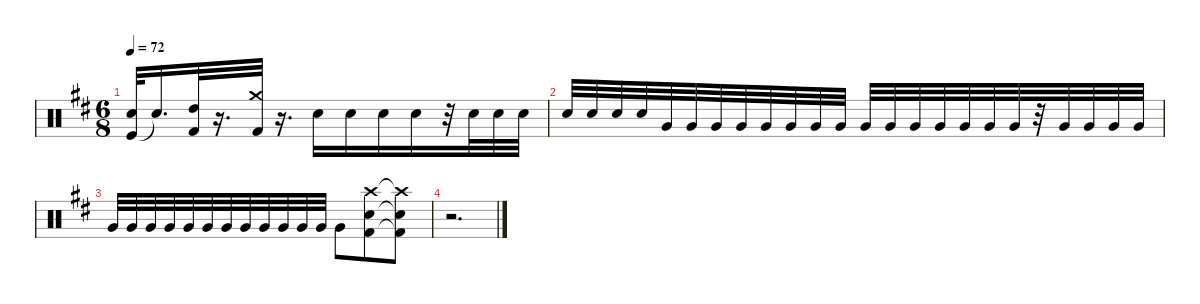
\defaultSystemsLayout 4
\hideDynamics
\bracketExtendMode nobrackets
\singleTrackTrackNamePolicy hidden
\multiTrackTrackNamePolicy hidden
\firstSystemTrackNameMode fullname
\firstSystemTrackNameOrientation horizontal
\otherSystemsTrackNameOrientation horizontal
\track ("Drumkit" "drm.") {defaultSystemsLayout 4 instrument percussion}
\staff {score}
\articulation defaults
\ts (6 8)
\tempo 72
\clef neutral
\ks bminor
("Kick (hit)"{acc forcenatural} "Electric Snare (hit)"{acc forcenatural}).32{dy fff beam Up} "Electric Snare (hit)"{t acc forcenatural}.16{d beam Up} ("Kick (hit) 2"{acc forcenatural} "High Tom (hit)"{acc forcenatural}).32{dy f beam Up} r.16{d beam Up} ("Crash medium (hit)"{acc forcenatural} "Kick (hit) 2"{acc forcenatural}).32{dy fff beam Up} r.16{d beam Up} "Snare (hit) 2"{acc forcenatural}.16{beam Down} "Snare (hit) 2"{acc forcenatural}.16{beam Down} "Snare (hit) 2"{acc forcenatural}.16{beam Down} "Snare (hit) 2"{acc forcenatural}.16{beam Down} r.32{beam Down} "Snare (hit) 2"{acc forcenatural}.32{dy ff beam Down} "Snare (hit) 2"{acc forcenatural}.32{beam Down} "Snare (hit) 2"{acc forcenatural}.32{beam Down} |
"Snare (hit) 2"{acc forcenatural}.32{beam Up} "Snare (hit) 2"{acc forcenatural}.32{beam Up} "Snare (hit) 2"{acc forcenatural}.32{beam Up} "Snare (hit) 2"{acc forcenatural}.32{beam Up} "Very Low Tom (hit)"{acc forcenatural}.32{beam Up} "Very Low Tom (hit)"{acc forcenatural}.32{beam Up} "Very Low Tom (hit)"{acc forcenatural}.32{beam Up} "Very Low Tom (hit)"{acc forcenatural}.32{beam Up} "Very Low Tom (hit)"{acc forcenatural}.32{beam Up} "Very Low Tom (hit)"{acc forcenatural}.32{beam Up} "Very Low Tom (hit)"{acc forcenatural}.32{beam Up} "Very Low Tom (hit)"{acc forcenatural}.32{beam Up} "Very Low Tom (hit)"{acc forcenatural}.32{beam Up} "Very Low Tom (hit)"{acc forcenatural}.32{beam Up} "Very Low Tom (hit)"{acc forcenatural}.32{beam Up} "Very Low Tom (hit)"{acc forcenatural}.32{beam Up} "Very Low Tom (hit)"{acc forcenatural}.32{beam Up} "Very Low Tom (hit)"{acc forcenatural}.32{beam Up} "Very Low Tom (hit)"{acc forcenatural}.32{beam Up} r.32{beam Up} "Very Low Tom (hit)"{acc forcenatural}.32{beam Up} "Very Low Tom (hit)"{acc forcenatural}.32{beam Up} "Very Low Tom (hit)"{acc forcenatural}.32{beam Up} "Very Low Tom (hit)"{acc forcenatural}.32{beam Up} |
"Very Low Tom (hit)"{acc forcenatural}.32{beam Up} "Very Low Tom (hit)"{acc forcenatural}.32{beam Up} "Very Low Tom (hit)"{acc forcenatural}.32{beam Up} "Very Low Tom (hit)"{acc forcenatural}.32{beam Up} "Very Low Tom (hit)"{acc forcenatural}.32{beam Up} "Very Low Tom (hit)"{acc forcenatural}.32{beam Up} "Very Low Tom (hit)"{acc forcenatural}.32{beam Up} "Very Low Tom (hit)"{acc forcenatural}.32{beam Up} "Very Low Tom (hit)"{acc forcenatural}.32{beam Up} "Very Low Tom (hit)"{acc forcenatural}.32{beam Up} "Very Low Tom (hit)"{acc forcenatural}.32{beam Up} "Very Low Tom (hit)"{acc forcenatural}.32{beam Up} "Very Low Tom (hit)"{acc forcenatural}.8{beam Down} ("Snare (hit) 2"{acc forcenatural} "Kick (hit) 2"{acc forcenatural} "Crash high (hit)"{acc #}).8{beam Down} ("Snare (hit) 2"{t acc forcenatural} "Kick (hit) 2"{t acc forcenatural} "Crash high (hit)"{t acc #}).8{beam Down} |
r.2{d beam Down}
